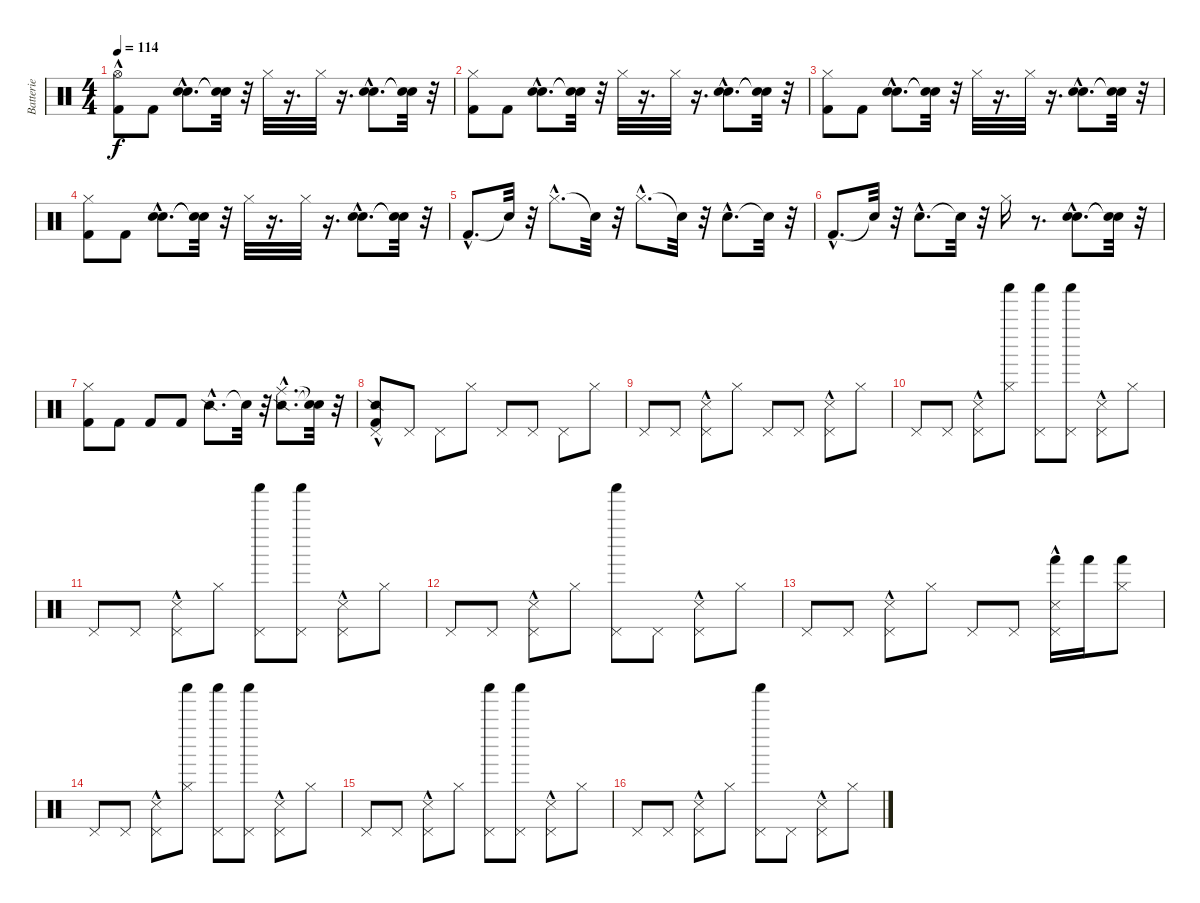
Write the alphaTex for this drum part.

\track ("Batterie" "Batterie") {instrument percussion}
\staff {score}
\articulation defaults
\ts (4 4)
\tempo 114
\clef neutral
\ks c
("Kick (hit) 2" "Hi-Hat (open)"{hac}).8{dy f} "Kick (hit) 2".8 ("Snare (hit) 2"{hac} "Electric Snare (hit)"{hac}).8{d} ("Snare (hit)"{t} "Snare (hit)"{t}).32 r.32 "Hi-Hat (closed)".32 r.16{d} "Hi-Hat (closed)".32 r.16{d} ("Snare (hit) 2"{hac} "Electric Snare (hit)"{hac}).8{d} ("Snare (hit)"{t} "Snare (hit)"{t}).32 r.32 |
("Kick (hit) 2" "Hi-Hat (closed)").8 "Kick (hit) 2".8 ("Snare (hit) 2"{hac} "Electric Snare (hit)"{hac}).8{d} ("Snare (hit)"{t} "Snare (hit)"{t}).32 r.32 "Hi-Hat (closed)".32 r.16{d} "Hi-Hat (closed)".32 r.16{d} ("Snare (hit) 2"{hac} "Electric Snare (hit)"{hac}).8{d} ("Snare (hit)"{t} "Snare (hit)"{t}).32 r.32 |
("Kick (hit) 2" "Hi-Hat (closed)").8 "Kick (hit) 2".8 ("Snare (hit) 2"{hac} "Electric Snare (hit)"{hac}).8{d} ("Snare (hit)"{t} "Snare (hit)"{t}).32 r.32 "Hi-Hat (closed)".32 r.16{d} "Hi-Hat (closed)".32 r.16{d} ("Snare (hit) 2"{hac} "Electric Snare (hit)"{hac}).8{d} ("Snare (hit)"{t} "Snare (hit)"{t}).32 r.32 |
("Kick (hit) 2" "Hi-Hat (closed)").8 "Kick (hit) 2".8 ("Snare (hit) 2"{hac} "Electric Snare (hit)"{hac}).8{d} ("Snare (hit)"{t} "Snare (hit)"{t}).32 r.32 "Hi-Hat (closed)".32 r.16{d} "Hi-Hat (closed)".32 r.16{d} ("Snare (hit) 2"{hac} "Electric Snare (hit)"{hac}).8{d} ("Snare (hit)"{t} "Snare (hit)"{t}).32 r.32 |
"Kick (hit) 2"{hac}.8{d} "Snare (hit)"{t}.32 r.32 "Hi-Hat (closed)"{hac}.8{d} "Snare (hit)"{t}.32 r.32 "Hi-Hat (closed)"{hac}.8{d} "Snare (hit)"{t}.32 r.32 "Snare (hit) 2"{hac}.8{d} "Snare (hit)"{t}.32 r.32 |
"Kick (hit) 2"{hac}.8{d} "Snare (hit)"{t}.32 r.32 "Snare (hit) 2"{hac}.8{d} "Snare (hit)"{t}.32 r.32 "Hi-Hat (closed)".16 r.8{d} ("Snare (hit) 2"{hac} "Electric Snare (hit)"{hac}).8{d} ("Snare (hit)"{t} "Snare (hit)"{t}).32 r.32 |
("Kick (hit) 2" "Hi-Hat (closed)").8 "Kick (hit) 2".8 "Kick (hit) 2".8 "Kick (hit) 2".8 "Snare (side stick) 2"{hac}.8{d} "Snare (hit)"{t}.32 r.32 ("Snare (side stick) 2"{hac} "Ride (middle)"{hac}).8{d} ("Snare (hit)"{t} "Snare (hit)"{t}).32 r.32 |
("Snare (side stick) 2"{hac} "Kick (hit) 2"{hac} "Pedal Hi-Hat (hit)").8 "Pedal Hi-Hat (hit)".8 "Pedal Hi-Hat (hit)".8 "Hi-Hat (closed)".8 "Pedal Hi-Hat (hit)".8 "Pedal Hi-Hat (hit)".8 "Pedal Hi-Hat (hit)".8 "Hi-Hat (closed)".8 |
"Pedal Hi-Hat (hit)".8 "Pedal Hi-Hat (hit)".8 ("Snare (side stick) 3"{hac} "Pedal Hi-Hat (hit)").8 "Hi-Hat (closed)".8 "Pedal Hi-Hat (hit)".8 "Pedal Hi-Hat (hit)".8 ("Snare (side stick) 3"{hac} "Pedal Hi-Hat (hit)").8 "Hi-Hat (closed)".8 |
"Pedal Hi-Hat (hit)".8 "Pedal Hi-Hat (hit)".8 ("Snare (side stick) 3"{hac} "Pedal Hi-Hat (hit)").8 ("Hi-Hat (closed)" "Shaker (hit)").8 ("Pedal Hi-Hat (hit)" "Shaker (hit)").8 ("Pedal Hi-Hat (hit)" "Shaker (hit)").8 ("Snare (side stick) 3"{hac} "Pedal Hi-Hat (hit)").8 "Hi-Hat (closed)".8 |
"Pedal Hi-Hat (hit)".8 "Pedal Hi-Hat (hit)".8 ("Snare (side stick) 3"{hac} "Pedal Hi-Hat (hit)").8 "Hi-Hat (closed)".8 ("Pedal Hi-Hat (hit)" "Shaker (hit)").8 ("Pedal Hi-Hat (hit)" "Shaker (hit)").8 ("Snare (side stick) 3"{hac} "Pedal Hi-Hat (hit)").8 "Hi-Hat (closed)".8 |
"Pedal Hi-Hat (hit)".8 "Pedal Hi-Hat (hit)".8 ("Snare (side stick) 3"{hac} "Pedal Hi-Hat (hit)").8 "Hi-Hat (closed)".8 ("Pedal Hi-Hat (hit)" "Shaker (hit)").8 "Pedal Hi-Hat (hit)".8 ("Snare (side stick) 3"{hac} "Pedal Hi-Hat (hit)").8 "Hi-Hat (closed)".8 |
"Pedal Hi-Hat (hit)".8 "Pedal Hi-Hat (hit)".8 ("Snare (side stick) 3"{hac} "Pedal Hi-Hat (hit)").8 "Hi-Hat (closed)".8 "Pedal Hi-Hat (hit)".8 "Pedal Hi-Hat (hit)".8 ("Snare (side stick) 3"{hac} "Pedal Hi-Hat (hit)" "Hand (hit)").16 "Hand (hit)".16 ("Hi-Hat (closed)" "Hand (hit)").8 |
"Pedal Hi-Hat (hit)".8 "Pedal Hi-Hat (hit)".8 ("Snare (side stick) 3"{hac} "Pedal Hi-Hat (hit)").8 ("Hi-Hat (closed)" "Shaker (hit)").8 ("Pedal Hi-Hat (hit)" "Shaker (hit)").8 ("Pedal Hi-Hat (hit)" "Shaker (hit)").8 ("Snare (side stick) 3"{hac} "Pedal Hi-Hat (hit)").8 "Hi-Hat (closed)".8 |
"Pedal Hi-Hat (hit)".8 "Pedal Hi-Hat (hit)".8 ("Snare (side stick) 3"{hac} "Pedal Hi-Hat (hit)").8 "Hi-Hat (closed)".8 ("Pedal Hi-Hat (hit)" "Shaker (hit)").8 ("Pedal Hi-Hat (hit)" "Shaker (hit)").8 ("Snare (side stick) 3"{hac} "Pedal Hi-Hat (hit)").8 "Hi-Hat (closed)".8 |
"Pedal Hi-Hat (hit)".8 "Pedal Hi-Hat (hit)".8 ("Snare (side stick) 3"{hac} "Pedal Hi-Hat (hit)").8 "Hi-Hat (closed)".8 ("Pedal Hi-Hat (hit)" "Shaker (hit)").8 "Pedal Hi-Hat (hit)".8 ("Snare (side stick) 3"{hac} "Pedal Hi-Hat (hit)").8 "Hi-Hat (closed)".8
